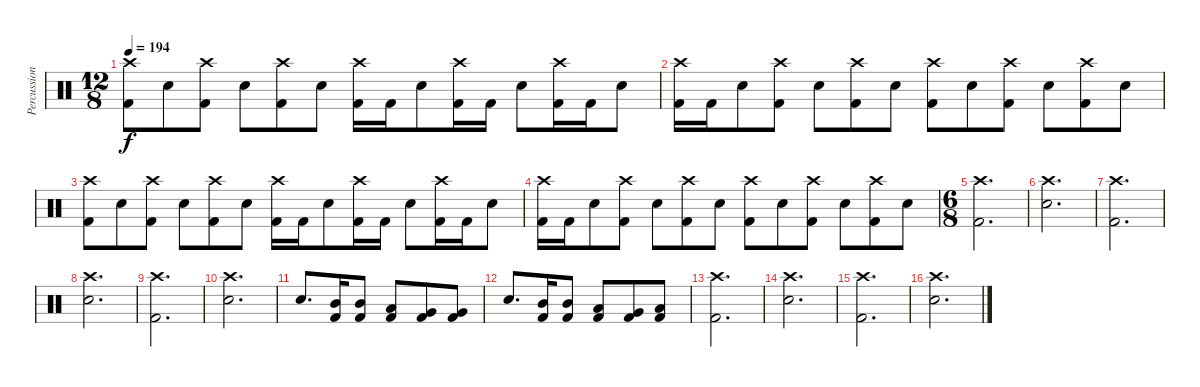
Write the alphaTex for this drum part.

\track ("Percussion" "Percussion") {instrument percussion}
\staff {score}
\articulation defaults
\ts (12 8)
\tempo 194
\clef neutral
\ks c
("Kick (hit) 2" "Crash high (hit)").8{dy f} "Snare (hit) 2".8 ("Kick (hit) 2" "Crash high (hit)").8 "Snare (hit) 2".8 ("Kick (hit) 2" "Crash high (hit)").8 "Snare (hit) 2".8 ("Kick (hit) 2" "Crash high (hit)").16 "Kick (hit) 2".16 "Snare (hit) 2".8 ("Kick (hit) 2" "Crash high (hit)").16 "Kick (hit) 2".16 "Snare (hit) 2".8 ("Kick (hit) 2" "Crash high (hit)").16 "Kick (hit) 2".16 "Snare (hit) 2".8 |
("Kick (hit) 2" "Crash high (hit)").16 "Kick (hit) 2".16 "Snare (hit) 2".8 ("Kick (hit) 2" "Crash high (hit)").8 "Snare (hit) 2".8 ("Kick (hit) 2" "Crash high (hit)").8 "Snare (hit) 2".8 ("Kick (hit) 2" "Crash high (hit)").8 "Snare (hit) 2".8 ("Kick (hit) 2" "Crash high (hit)").8 "Snare (hit) 2".8 ("Kick (hit) 2" "Crash high (hit)").8 "Snare (hit) 2".8 |
("Kick (hit) 2" "Crash high (hit)").8 "Snare (hit) 2".8 ("Kick (hit) 2" "Crash high (hit)").8 "Snare (hit) 2".8 ("Kick (hit) 2" "Crash high (hit)").8 "Snare (hit) 2".8 ("Kick (hit) 2" "Crash high (hit)").16 "Kick (hit) 2".16 "Snare (hit) 2".8 ("Kick (hit) 2" "Crash high (hit)").16 "Kick (hit) 2".16 "Snare (hit) 2".8 ("Kick (hit) 2" "Crash high (hit)").16 "Kick (hit) 2".16 "Snare (hit) 2".8 |
("Kick (hit) 2" "Crash high (hit)").16 "Kick (hit) 2".16 "Snare (hit) 2".8 ("Kick (hit) 2" "Crash high (hit)").8 "Snare (hit) 2".8 ("Kick (hit) 2" "Crash high (hit)").8 "Snare (hit) 2".8 ("Kick (hit) 2" "Crash high (hit)").8 "Snare (hit) 2".8 ("Kick (hit) 2" "Crash high (hit)").8 "Snare (hit) 2".8 ("Kick (hit) 2" "Crash high (hit)").8 "Snare (hit) 2".8 |
\ts (6 8)
("Kick (hit) 2" "Crash high (hit)").2{d} |
("Snare (hit) 2" "Crash high (hit)").2{d} |
("Kick (hit) 2" "Crash high (hit)").2{d} |
("Snare (hit) 2" "Crash high (hit)").2{d} |
("Kick (hit) 2" "Crash high (hit)").2{d} |
("Snare (hit) 2" "Crash high (hit)").2{d} |
"Snare (hit) 2".8{d} ("Kick (hit) 2" "Mid Tom (hit)").16 ("Kick (hit) 2" "Mid Tom (hit)").8 ("Kick (hit) 2" "Low Tom (hit)").8 ("Kick (hit) 2" "Very Low Tom (hit)").8 ("Kick (hit) 2" "Very Low Tom (hit)").8 |
"Snare (hit) 2".8{d} ("Kick (hit) 2" "Mid Tom (hit)").16 ("Kick (hit) 2" "Mid Tom (hit)").8 ("Kick (hit) 2" "Low Tom (hit)").8 ("Kick (hit) 2" "Very Low Tom (hit)").8 ("Kick (hit) 2" "Low Floor Tom (hit)").8 |
("Kick (hit) 2" "Crash high (hit)").2{d} |
("Snare (hit) 2" "Crash high (hit)").2{d} |
("Kick (hit) 2" "Crash high (hit)").2{d} |
("Snare (hit) 2" "Crash high (hit)").2{d}
